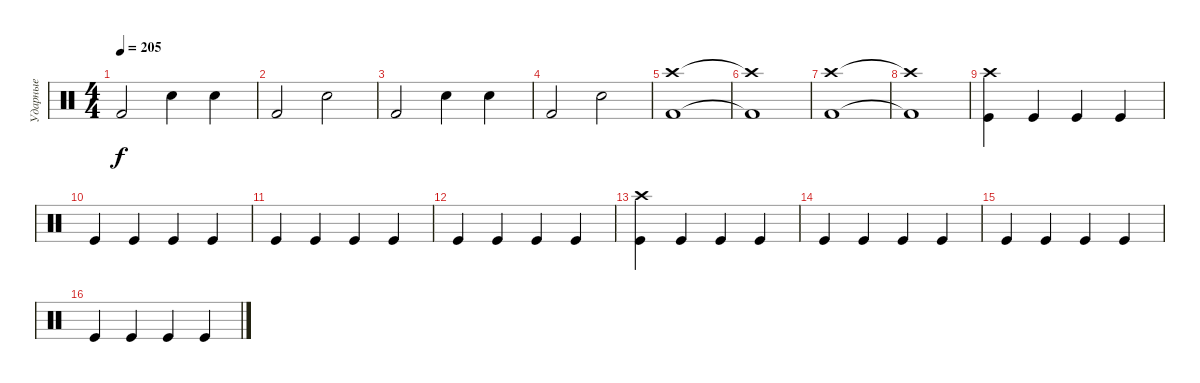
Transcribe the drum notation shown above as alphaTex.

\track ("Ударные" "Ударные") {instrument percussion}
\staff {score}
\articulation defaults
\ts (4 4)
\tempo 205
\clef neutral
\ks c "Kick (hit) 2".2{dy f} "Snare (hit) 2".4 "Snare (hit) 2".4
|
"Kick (hit) 2".2 "Snare (hit) 2".2 |
"Kick (hit) 2".2 "Snare (hit) 2".4 "Snare (hit) 2".4 |
"Kick (hit) 2".2 "Snare (hit) 2".2 |
("Crash high (hit)" "Kick (hit) 2").1 |
("Crash high (hit)"{t} "Kick (hit) 2"{t}).1 |
("Crash high (hit)" "Kick (hit) 2").1 |
("Crash high (hit)"{t} "Kick (hit) 2"{t}).1 |
("Crash high (hit)" "Kick (hit)").4 "Kick (hit)".4 "Kick (hit)".4 "Kick (hit)".4 |
"Kick (hit)".4 "Kick (hit)".4 "Kick (hit)".4 "Kick (hit)".4 |
"Kick (hit)".4 "Kick (hit)".4 "Kick (hit)".4 "Kick (hit)".4 |
"Kick (hit)".4 "Kick (hit)".4 "Kick (hit)".4 "Kick (hit)".4 |
("Crash high (hit)" "Kick (hit)").4 "Kick (hit)".4 "Kick (hit)".4 "Kick (hit)".4 |
"Kick (hit)".4 "Kick (hit)".4 "Kick (hit)".4 "Kick (hit)".4 |
"Kick (hit)".4 "Kick (hit)".4 "Kick (hit)".4 "Kick (hit)".4 |
"Kick (hit)".4 "Kick (hit)".4 "Kick (hit)".4 "Kick (hit)".4
